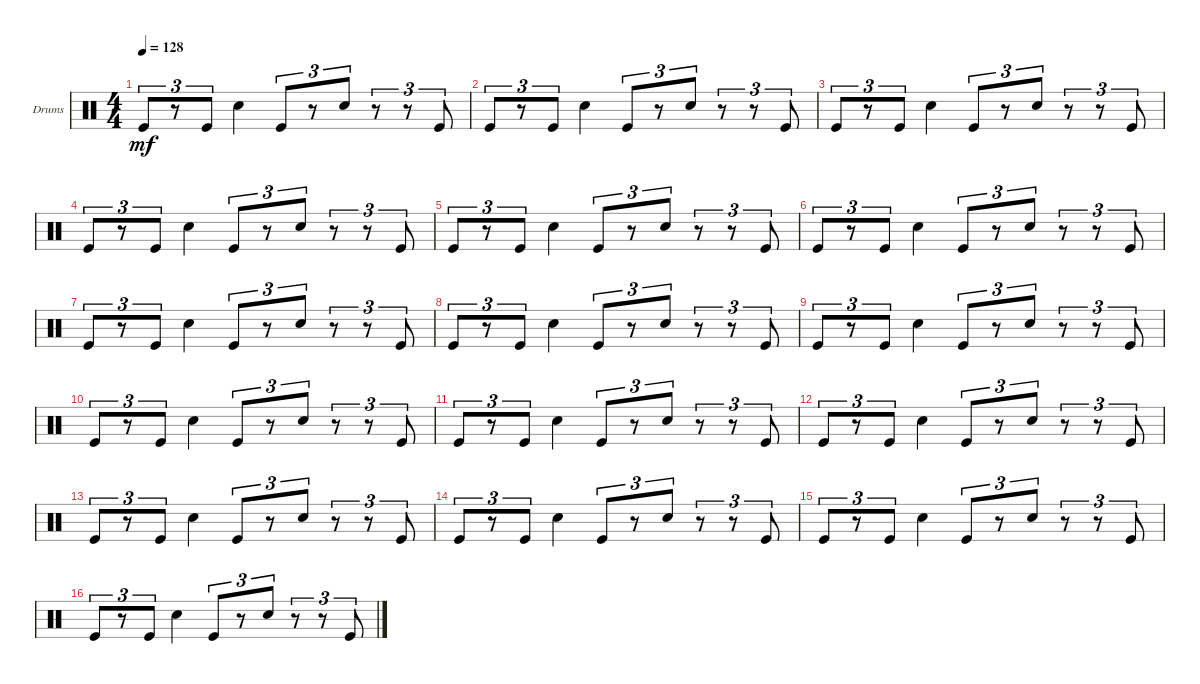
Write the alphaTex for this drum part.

\defaultSystemsLayout 4
\bracketExtendMode groupsimilarinstruments
\firstSystemTrackNameOrientation horizontal
\otherSystemsTrackNameOrientation horizontal
\track ("Drumkit" "Drums") {instrument percussion}
\staff {score}
\articulation defaults
\ts (4 4)
\tempo 128
\clef neutral
\scale
0.333333
\ks c "Kick (hit)".8{tu (3 2) dy mf}
r.8{tu (3 2)} "Kick (hit)".8{tu (3 2)} "Snare (hit) 2".4 "Kick (hit)".8{tu (3 2)} r.8{tu (3 2)} "Snare (hit) 2".8{tu (3 2)} r.8{tu (3 2)} r.8{tu (3 2)} "Kick (hit)".8{tu (3 2)} |
\scale
0.333333 "Kick (hit)".8{tu (3 2)} r.8{tu (3 2)} "Kick (hit)".8{tu (3 2)} "Snare (hit) 2".4 "Kick (hit)".8{tu (3 2)} r.8{tu (3 2)} "Snare (hit) 2".8{tu (3 2)} r.8{tu (3 2)} r.8{tu (3 2)} "Kick (hit)".8{tu (3 2)} |
\scale
0.333333 "Kick (hit)".8{tu (3 2)} r.8{tu (3 2)} "Kick (hit)".8{tu (3 2)} "Snare (hit) 2".4 "Kick (hit)".8{tu (3 2)} r.8{tu (3 2)} "Snare (hit) 2".8{tu (3 2)} r.8{tu (3 2)} r.8{tu (3 2)} "Kick (hit)".8{tu (3 2)} |
\scale
0.333333 "Kick (hit)".8{tu (3 2)} r.8{tu (3 2)} "Kick (hit)".8{tu (3 2)} "Snare (hit) 2".4 "Kick (hit)".8{tu (3 2)} r.8{tu (3 2)} "Snare (hit) 2".8{tu (3 2)} r.8{tu (3 2)} r.8{tu (3 2)} "Kick (hit)".8{tu (3 2)} |
\scale
0.333333 "Kick (hit)".8{tu (3 2)} r.8{tu (3 2)} "Kick (hit)".8{tu (3 2)} "Snare (hit) 2".4 "Kick (hit)".8{tu (3 2)} r.8{tu (3 2)} "Snare (hit) 2".8{tu (3 2)} r.8{tu (3 2)} r.8{tu (3 2)} "Kick (hit)".8{tu (3 2)} |
\scale
0.333333 "Kick (hit)".8{tu (3 2)} r.8{tu (3 2)} "Kick (hit)".8{tu (3 2)} "Snare (hit) 2".4 "Kick (hit)".8{tu (3 2)} r.8{tu (3 2)} "Snare (hit) 2".8{tu (3 2)} r.8{tu (3 2)} r.8{tu (3 2)} "Kick (hit)".8{tu (3 2)} |
\scale
0.333333 "Kick (hit)".8{tu (3 2)} r.8{tu (3 2)} "Kick (hit)".8{tu (3 2)} "Snare (hit) 2".4 "Kick (hit)".8{tu (3 2)} r.8{tu (3 2)} "Snare (hit) 2".8{tu (3 2)} r.8{tu (3 2)} r.8{tu (3 2)} "Kick (hit)".8{tu (3 2)} |
\scale
0.333333 "Kick (hit)".8{tu (3 2)} r.8{tu (3 2)} "Kick (hit)".8{tu (3 2)} "Snare (hit) 2".4 "Kick (hit)".8{tu (3 2)} r.8{tu (3 2)} "Snare (hit) 2".8{tu (3 2)} r.8{tu (3 2)} r.8{tu (3 2)} "Kick (hit)".8{tu (3 2)} |
\scale
0.333333 "Kick (hit)".8{tu (3 2)} r.8{tu (3 2)} "Kick (hit)".8{tu (3 2)} "Snare (hit) 2".4 "Kick (hit)".8{tu (3 2)} r.8{tu (3 2)} "Snare (hit) 2".8{tu (3 2)} r.8{tu (3 2)} r.8{tu (3 2)} "Kick (hit)".8{tu (3 2)} |
\scale
0.333333 "Kick (hit)".8{tu (3 2)} r.8{tu (3 2)} "Kick (hit)".8{tu (3 2)} "Snare (hit) 2".4 "Kick (hit)".8{tu (3 2)} r.8{tu (3 2)} "Snare (hit) 2".8{tu (3 2)} r.8{tu (3 2)} r.8{tu (3 2)} "Kick (hit)".8{tu (3 2)} |
\scale
0.333333 "Kick (hit)".8{tu (3 2)} r.8{tu (3 2)} "Kick (hit)".8{tu (3 2)} "Snare (hit) 2".4 "Kick (hit)".8{tu (3 2)} r.8{tu (3 2)} "Snare (hit) 2".8{tu (3 2)} r.8{tu (3 2)} r.8{tu (3 2)} "Kick (hit)".8{tu (3 2)} |
\scale
0.333333 "Kick (hit)".8{tu (3 2)} r.8{tu (3 2)} "Kick (hit)".8{tu (3 2)} "Snare (hit) 2".4 "Kick (hit)".8{tu (3 2)} r.8{tu (3 2)} "Snare (hit) 2".8{tu (3 2)} r.8{tu (3 2)} r.8{tu (3 2)} "Kick (hit)".8{tu (3 2)} |
\scale
0.333333 "Kick (hit)".8{tu (3 2)} r.8{tu (3 2)} "Kick (hit)".8{tu (3 2)} "Snare (hit) 2".4 "Kick (hit)".8{tu (3 2)} r.8{tu (3 2)} "Snare (hit) 2".8{tu (3 2)} r.8{tu (3 2)} r.8{tu (3 2)} "Kick (hit)".8{tu (3 2)} |
\scale
0.333333 "Kick (hit)".8{tu (3 2)} r.8{tu (3 2)} "Kick (hit)".8{tu (3 2)} "Snare (hit) 2".4 "Kick (hit)".8{tu (3 2)} r.8{tu (3 2)} "Snare (hit) 2".8{tu (3 2)} r.8{tu (3 2)} r.8{tu (3 2)} "Kick (hit)".8{tu (3 2)} |
\scale
0.333333 "Kick (hit)".8{tu (3 2)} r.8{tu (3 2)} "Kick (hit)".8{tu (3 2)} "Snare (hit) 2".4 "Kick (hit)".8{tu (3 2)} r.8{tu (3 2)} "Snare (hit) 2".8{tu (3 2)} r.8{tu (3 2)} r.8{tu (3 2)} "Kick (hit)".8{tu (3 2)} |
\scale
0.333333 "Kick (hit)".8{tu (3 2)} r.8{tu (3 2)} "Kick (hit)".8{tu (3 2)} "Snare (hit) 2".4 "Kick (hit)".8{tu (3 2)} r.8{tu (3 2)} "Snare (hit) 2".8{tu (3 2)} r.8{tu (3 2)} r.8{tu (3 2)} "Kick (hit)".8{tu (3 2)}
